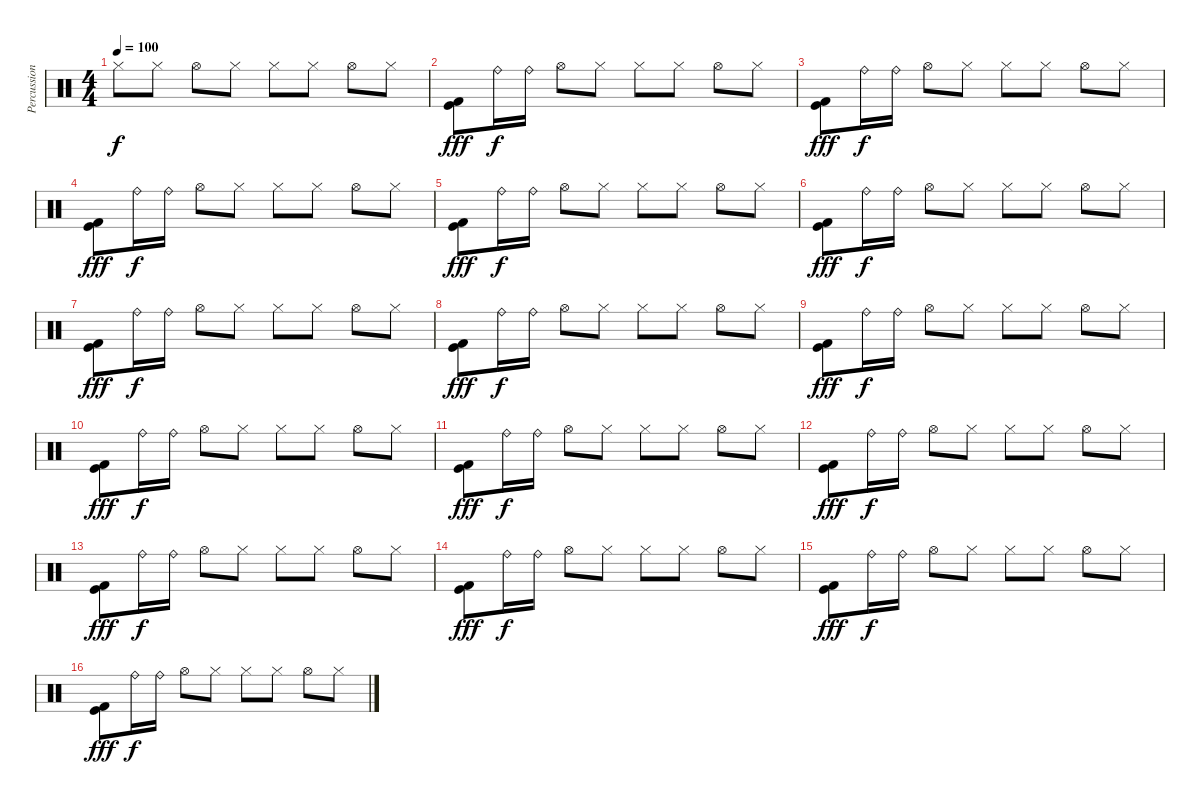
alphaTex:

\track ("Percussion" "Percussion") {instrument percussion}
\staff {score}
\articulation defaults
\ts (4 4)
\tempo 100
\clef neutral
\ks c "Hi-Hat (closed)".8{dy f} "Hi-Hat (closed)".8 "Hi-Hat (open)".8 "Hi-Hat (closed)".8 "Hi-Hat (closed)".8 "Hi-Hat (closed)".8 "Hi-Hat (open)".8 "Hi-Hat (closed)".8
|
("Kick (hit) 2" "Kick (hit)").8{dy fff} "Ride (bell)".16{dy f} "Ride (bell)".16 "Hi-Hat (open)".8 "Hi-Hat (closed)".8 "Hi-Hat (closed)".8 "Hi-Hat (closed)".8 "Hi-Hat (open)".8 "Hi-Hat (closed)".8 |
("Kick (hit) 2" "Kick (hit)").8{dy fff} "Ride (bell)".16{dy f} "Ride (bell)".16 "Hi-Hat (open)".8 "Hi-Hat (closed)".8 "Hi-Hat (closed)".8 "Hi-Hat (closed)".8 "Hi-Hat (open)".8 "Hi-Hat (closed)".8 |
("Kick (hit) 2" "Kick (hit)").8{dy fff} "Ride (bell)".16{dy f} "Ride (bell)".16 "Hi-Hat (open)".8 "Hi-Hat (closed)".8 "Hi-Hat (closed)".8 "Hi-Hat (closed)".8 "Hi-Hat (open)".8 "Hi-Hat (closed)".8 |
("Kick (hit) 2" "Kick (hit)").8{dy fff} "Ride (bell)".16{dy f} "Ride (bell)".16 "Hi-Hat (open)".8 "Hi-Hat (closed)".8 "Hi-Hat (closed)".8 "Hi-Hat (closed)".8 "Hi-Hat (open)".8 "Hi-Hat (closed)".8 |
("Kick (hit) 2" "Kick (hit)").8{dy fff} "Ride (bell)".16{dy f} "Ride (bell)".16 "Hi-Hat (open)".8 "Hi-Hat (closed)".8 "Hi-Hat (closed)".8 "Hi-Hat (closed)".8 "Hi-Hat (open)".8 "Hi-Hat (closed)".8 |
("Kick (hit) 2" "Kick (hit)").8{dy fff} "Ride (bell)".16{dy f} "Ride (bell)".16 "Hi-Hat (open)".8 "Hi-Hat (closed)".8 "Hi-Hat (closed)".8 "Hi-Hat (closed)".8 "Hi-Hat (open)".8 "Hi-Hat (closed)".8 |
("Kick (hit) 2" "Kick (hit)").8{dy fff} "Ride (bell)".16{dy f} "Ride (bell)".16 "Hi-Hat (open)".8 "Hi-Hat (closed)".8 "Hi-Hat (closed)".8 "Hi-Hat (closed)".8 "Hi-Hat (open)".8 "Hi-Hat (closed)".8 |
("Kick (hit) 2" "Kick (hit)").8{dy fff} "Ride (bell)".16{dy f} "Ride (bell)".16 "Hi-Hat (open)".8 "Hi-Hat (closed)".8 "Hi-Hat (closed)".8 "Hi-Hat (closed)".8 "Hi-Hat (open)".8 "Hi-Hat (closed)".8 |
("Kick (hit) 2" "Kick (hit)").8{dy fff} "Ride (bell)".16{dy f} "Ride (bell)".16 "Hi-Hat (open)".8 "Hi-Hat (closed)".8 "Hi-Hat (closed)".8 "Hi-Hat (closed)".8 "Hi-Hat (open)".8 "Hi-Hat (closed)".8 |
("Kick (hit) 2" "Kick (hit)").8{dy fff} "Ride (bell)".16{dy f} "Ride (bell)".16 "Hi-Hat (open)".8 "Hi-Hat (closed)".8 "Hi-Hat (closed)".8 "Hi-Hat (closed)".8 "Hi-Hat (open)".8 "Hi-Hat (closed)".8 |
("Kick (hit) 2" "Kick (hit)").8{dy fff} "Ride (bell)".16{dy f} "Ride (bell)".16 "Hi-Hat (open)".8 "Hi-Hat (closed)".8 "Hi-Hat (closed)".8 "Hi-Hat (closed)".8 "Hi-Hat (open)".8 "Hi-Hat (closed)".8 |
("Kick (hit) 2" "Kick (hit)").8{dy fff} "Ride (bell)".16{dy f} "Ride (bell)".16 "Hi-Hat (open)".8 "Hi-Hat (closed)".8 "Hi-Hat (closed)".8 "Hi-Hat (closed)".8 "Hi-Hat (open)".8 "Hi-Hat (closed)".8 |
("Kick (hit) 2" "Kick (hit)").8{dy fff} "Ride (bell)".16{dy f} "Ride (bell)".16 "Hi-Hat (open)".8 "Hi-Hat (closed)".8 "Hi-Hat (closed)".8 "Hi-Hat (closed)".8 "Hi-Hat (open)".8 "Hi-Hat (closed)".8 |
("Kick (hit) 2" "Kick (hit)").8{dy fff} "Ride (bell)".16{dy f} "Ride (bell)".16 "Hi-Hat (open)".8 "Hi-Hat (closed)".8 "Hi-Hat (closed)".8 "Hi-Hat (closed)".8 "Hi-Hat (open)".8 "Hi-Hat (closed)".8 |
("Kick (hit) 2" "Kick (hit)").8{dy fff} "Ride (bell)".16{dy f} "Ride (bell)".16 "Hi-Hat (open)".8 "Hi-Hat (closed)".8 "Hi-Hat (closed)".8 "Hi-Hat (closed)".8 "Hi-Hat (open)".8 "Hi-Hat (closed)".8
